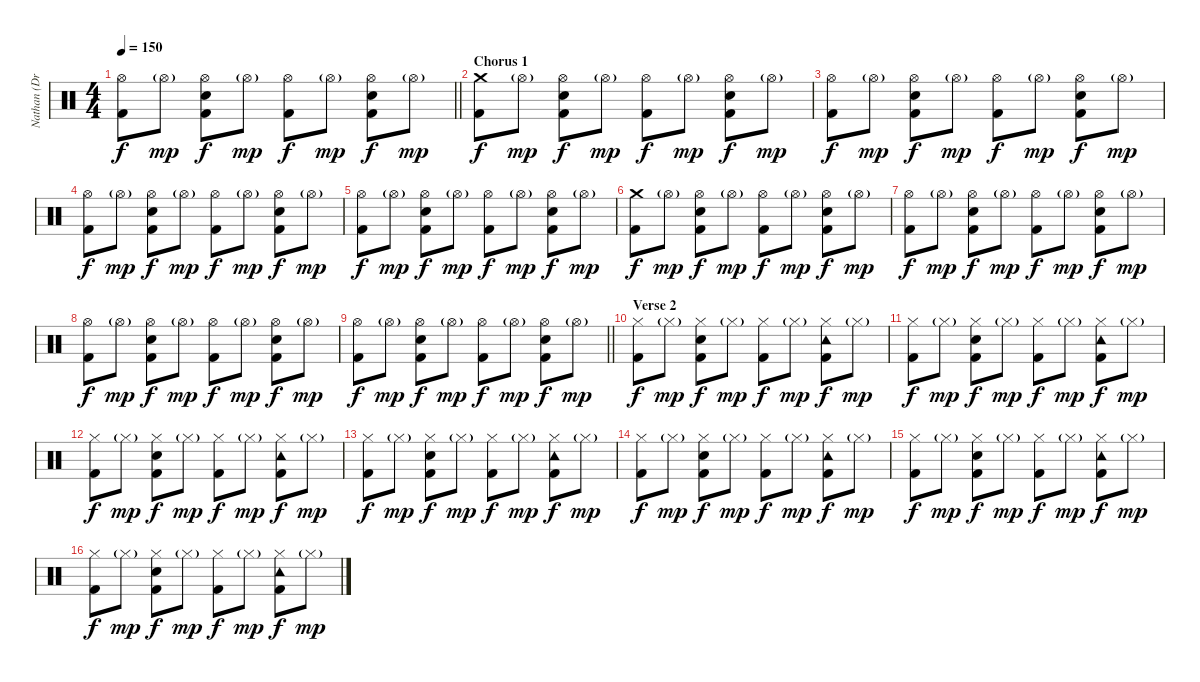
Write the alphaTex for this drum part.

\track ("Nathan (Drums)" "Nathan (Dr") {instrument percussion}
\staff {score}
\articulation defaults
\ts (4 4)
\tempo 150
\clef neutral
\barLineRight lightlight
\ks c
("Hi-Hat (open)" "Kick (hit) 2").8{dy f} "Hi-Hat (open)"{g}.8{dy mp} ("Hi-Hat (open)" "Electric Snare (hit)" "Kick (hit) 2").8{dy f} "Hi-Hat (open)"{g}.8{dy mp} ("Hi-Hat (open)" "Kick (hit) 2").8{dy f} "Hi-Hat (open)"{g}.8{dy mp} ("Hi-Hat (open)" "Electric Snare (hit)" "Kick (hit) 2").8{dy f} "Hi-Hat (open)"{g}.8{dy mp} |
\section ("" "Chorus 1")
("Crash medium (hit)" "Kick (hit) 2").8{dy f} "Hi-Hat (open)"{g}.8{dy mp} ("Hi-Hat (open)" "Electric Snare (hit)" "Kick (hit) 2").8{dy f} "Hi-Hat (open)"{g}.8{dy mp} ("Hi-Hat (open)" "Kick (hit) 2").8{dy f} "Hi-Hat (open)"{g}.8{dy mp} ("Hi-Hat (open)" "Electric Snare (hit)" "Kick (hit) 2").8{dy f} "Hi-Hat (open)"{g}.8{dy mp} |
("Hi-Hat (open)" "Kick (hit) 2").8{dy f} "Hi-Hat (open)"{g}.8{dy mp} ("Hi-Hat (open)" "Electric Snare (hit)" "Kick (hit) 2").8{dy f} "Hi-Hat (open)"{g}.8{dy mp} ("Hi-Hat (open)" "Kick (hit) 2").8{dy f} "Hi-Hat (open)"{g}.8{dy mp} ("Hi-Hat (open)" "Electric Snare (hit)" "Kick (hit) 2").8{dy f} "Hi-Hat (open)"{g}.8{dy mp} |
("Hi-Hat (open)" "Kick (hit) 2").8{dy f} "Hi-Hat (open)"{g}.8{dy mp} ("Hi-Hat (open)" "Electric Snare (hit)" "Kick (hit) 2").8{dy f} "Hi-Hat (open)"{g}.8{dy mp} ("Hi-Hat (open)" "Kick (hit) 2").8{dy f} "Hi-Hat (open)"{g}.8{dy mp} ("Hi-Hat (open)" "Electric Snare (hit)" "Kick (hit) 2").8{dy f} "Hi-Hat (open)"{g}.8{dy mp} |
("Hi-Hat (open)" "Kick (hit) 2").8{dy f} "Hi-Hat (open)"{g}.8{dy mp} ("Hi-Hat (open)" "Electric Snare (hit)" "Kick (hit) 2").8{dy f} "Hi-Hat (open)"{g}.8{dy mp} ("Hi-Hat (open)" "Kick (hit) 2").8{dy f} "Hi-Hat (open)"{g}.8{dy mp} ("Hi-Hat (open)" "Electric Snare (hit)" "Kick (hit) 2").8{dy f} "Hi-Hat (open)"{g}.8{dy mp} |
("Crash medium (hit)" "Kick (hit) 2").8{dy f} "Hi-Hat (open)"{g}.8{dy mp} ("Hi-Hat (open)" "Electric Snare (hit)" "Kick (hit) 2").8{dy f} "Hi-Hat (open)"{g}.8{dy mp} ("Hi-Hat (open)" "Kick (hit) 2").8{dy f} "Hi-Hat (open)"{g}.8{dy mp} ("Hi-Hat (open)" "Electric Snare (hit)" "Kick (hit) 2").8{dy f} "Hi-Hat (open)"{g}.8{dy mp} |
("Hi-Hat (open)" "Kick (hit) 2").8{dy f} "Hi-Hat (open)"{g}.8{dy mp} ("Hi-Hat (open)" "Electric Snare (hit)" "Kick (hit) 2").8{dy f} "Hi-Hat (open)"{g}.8{dy mp} ("Hi-Hat (open)" "Kick (hit) 2").8{dy f} "Hi-Hat (open)"{g}.8{dy mp} ("Hi-Hat (open)" "Electric Snare (hit)" "Kick (hit) 2").8{dy f} "Hi-Hat (open)"{g}.8{dy mp} |
("Hi-Hat (open)" "Kick (hit) 2").8{dy f} "Hi-Hat (open)"{g}.8{dy mp} ("Hi-Hat (open)" "Electric Snare (hit)" "Kick (hit) 2").8{dy f} "Hi-Hat (open)"{g}.8{dy mp} ("Hi-Hat (open)" "Kick (hit) 2").8{dy f} "Hi-Hat (open)"{g}.8{dy mp} ("Hi-Hat (open)" "Electric Snare (hit)" "Kick (hit) 2").8{dy f} "Hi-Hat (open)"{g}.8{dy mp} |
\barLineRight lightlight
("Hi-Hat (open)" "Kick (hit) 2").8{dy f} "Hi-Hat (open)"{g}.8{dy mp} ("Hi-Hat (open)" "Electric Snare (hit)" "Kick (hit) 2").8{dy f} "Hi-Hat (open)"{g}.8{dy mp} ("Hi-Hat (open)" "Kick (hit) 2").8{dy f} "Hi-Hat (open)"{g}.8{dy mp} ("Hi-Hat (open)" "Electric Snare (hit)" "Kick (hit) 2").8{dy f} "Hi-Hat (open)"{g}.8{dy mp} |
\section ("" "Verse 2")
("Hi-Hat (closed)" "Kick (hit) 2").8{dy f} "Hi-Hat (closed)"{g}.8{dy mp} ("Hi-Hat (closed)" "Electric Snare (hit)" "Kick (hit) 2").8{dy f} "Hi-Hat (closed)"{g}.8{dy mp} ("Hi-Hat (closed)" "Kick (hit) 2").8{dy f} "Hi-Hat (closed)"{g}.8{dy mp} ("Hi-Hat (closed)" "Tambourine (hit)" "Kick (hit) 2").8{dy f} "Hi-Hat (closed)"{g}.8{dy mp} |
("Hi-Hat (closed)" "Kick (hit) 2").8{dy f} "Hi-Hat (closed)"{g}.8{dy mp} ("Hi-Hat (closed)" "Electric Snare (hit)" "Kick (hit) 2").8{dy f} "Hi-Hat (closed)"{g}.8{dy mp} ("Hi-Hat (closed)" "Kick (hit) 2").8{dy f} "Hi-Hat (closed)"{g}.8{dy mp} ("Hi-Hat (closed)" "Tambourine (hit)" "Kick (hit) 2").8{dy f} "Hi-Hat (closed)"{g}.8{dy mp} |
("Hi-Hat (closed)" "Kick (hit) 2").8{dy f} "Hi-Hat (closed)"{g}.8{dy mp} ("Hi-Hat (closed)" "Electric Snare (hit)" "Kick (hit) 2").8{dy f} "Hi-Hat (closed)"{g}.8{dy mp} ("Hi-Hat (closed)" "Kick (hit) 2").8{dy f} "Hi-Hat (closed)"{g}.8{dy mp} ("Hi-Hat (closed)" "Tambourine (hit)" "Kick (hit) 2").8{dy f} "Hi-Hat (closed)"{g}.8{dy mp} |
("Hi-Hat (closed)" "Kick (hit) 2").8{dy f} "Hi-Hat (closed)"{g}.8{dy mp} ("Hi-Hat (closed)" "Electric Snare (hit)" "Kick (hit) 2").8{dy f} "Hi-Hat (closed)"{g}.8{dy mp} ("Hi-Hat (closed)" "Kick (hit) 2").8{dy f} "Hi-Hat (closed)"{g}.8{dy mp} ("Hi-Hat (closed)" "Tambourine (hit)" "Kick (hit) 2").8{dy f} "Hi-Hat (closed)"{g}.8{dy mp} |
("Hi-Hat (closed)" "Kick (hit) 2").8{dy f} "Hi-Hat (closed)"{g}.8{dy mp} ("Hi-Hat (closed)" "Electric Snare (hit)" "Kick (hit) 2").8{dy f} "Hi-Hat (closed)"{g}.8{dy mp} ("Hi-Hat (closed)" "Kick (hit) 2").8{dy f} "Hi-Hat (closed)"{g}.8{dy mp} ("Hi-Hat (closed)" "Tambourine (hit)" "Kick (hit) 2").8{dy f} "Hi-Hat (closed)"{g}.8{dy mp} |
("Hi-Hat (closed)" "Kick (hit) 2").8{dy f} "Hi-Hat (closed)"{g}.8{dy mp} ("Hi-Hat (closed)" "Electric Snare (hit)" "Kick (hit) 2").8{dy f} "Hi-Hat (closed)"{g}.8{dy mp} ("Hi-Hat (closed)" "Kick (hit) 2").8{dy f} "Hi-Hat (closed)"{g}.8{dy mp} ("Hi-Hat (closed)" "Tambourine (hit)" "Kick (hit) 2").8{dy f} "Hi-Hat (closed)"{g}.8{dy mp} |
("Hi-Hat (closed)" "Kick (hit) 2").8{dy f} "Hi-Hat (closed)"{g}.8{dy mp} ("Hi-Hat (closed)" "Electric Snare (hit)" "Kick (hit) 2").8{dy f} "Hi-Hat (closed)"{g}.8{dy mp} ("Hi-Hat (closed)" "Kick (hit) 2").8{dy f} "Hi-Hat (closed)"{g}.8{dy mp} ("Hi-Hat (closed)" "Tambourine (hit)" "Kick (hit) 2").8{dy f} "Hi-Hat (closed)"{g}.8{dy mp}
